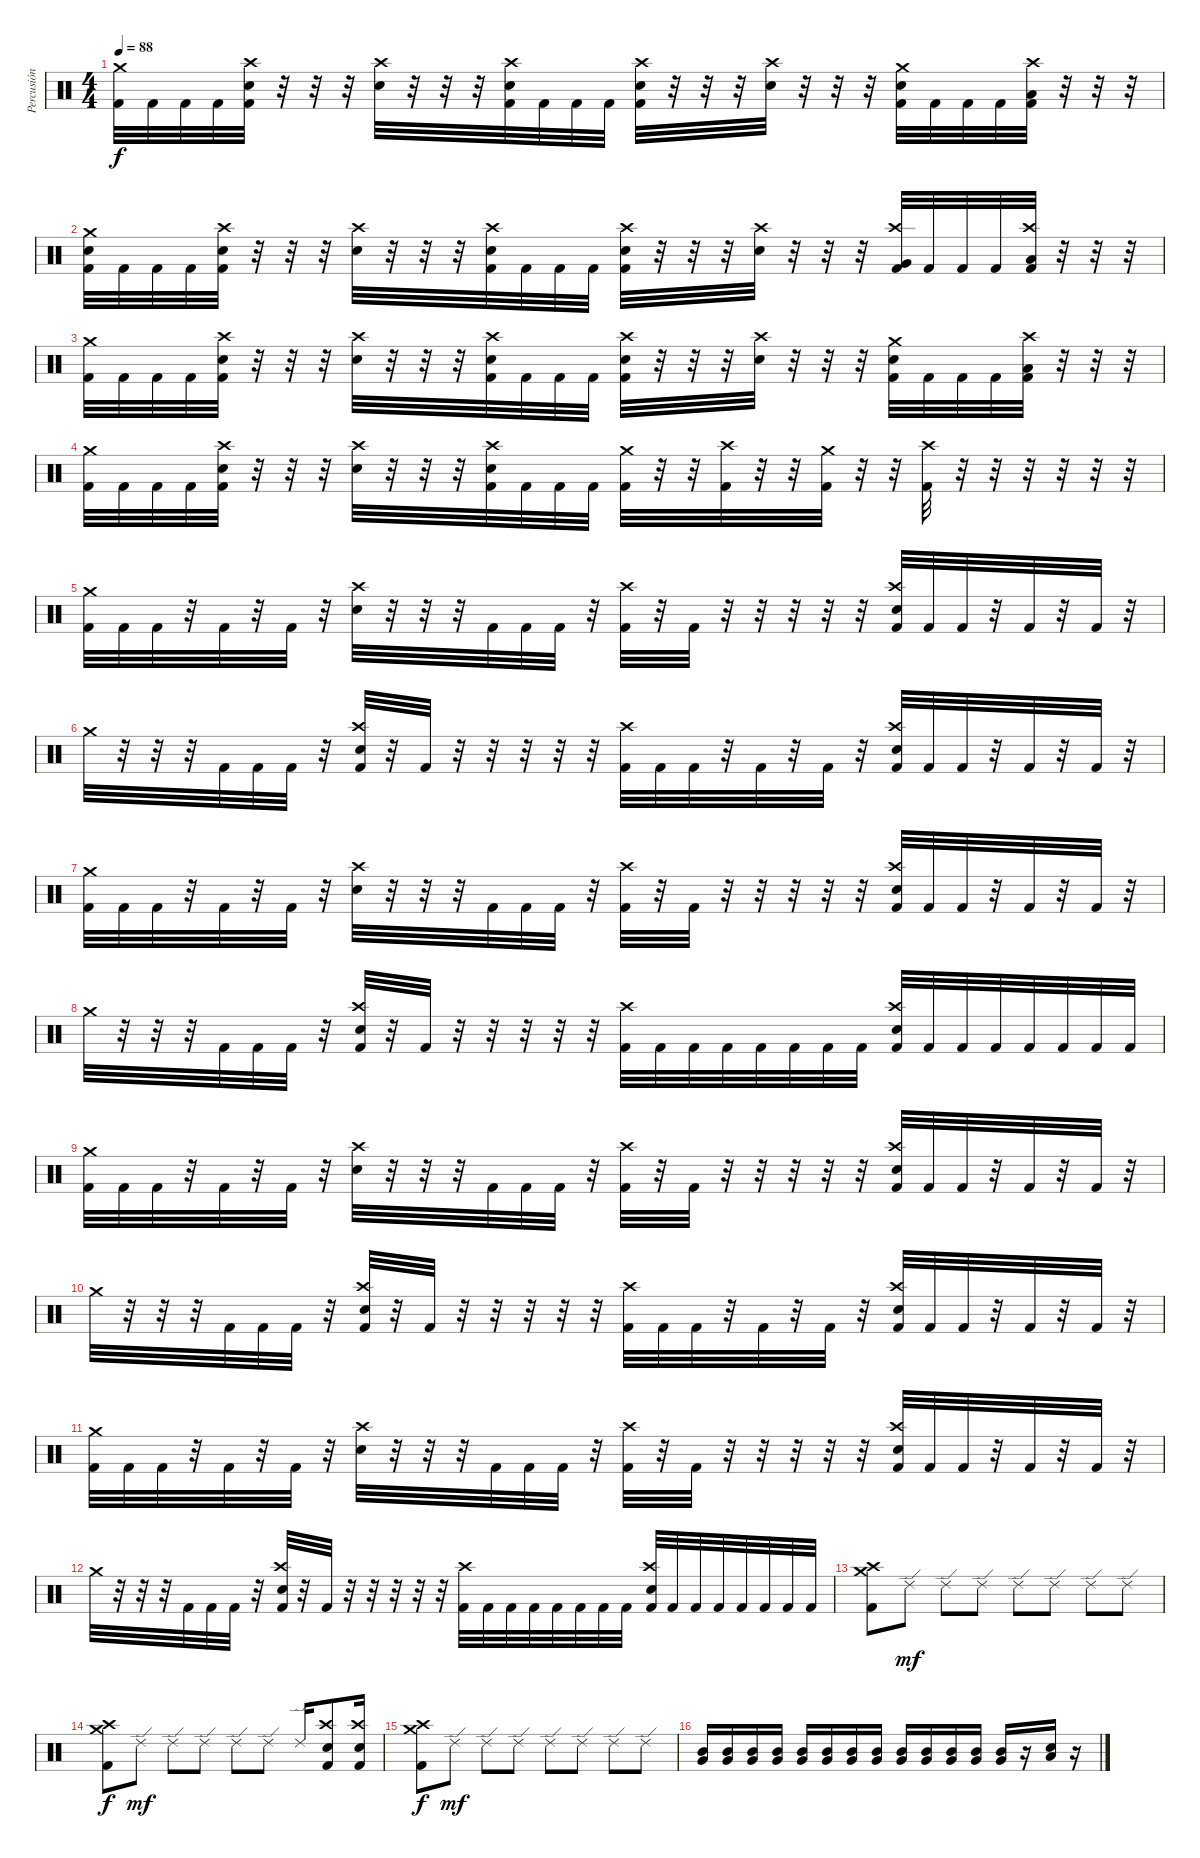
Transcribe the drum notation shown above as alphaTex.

\track ("Percusión" "Percusión") {instrument percussion}
\staff {score}
\articulation defaults
\ts (4 4)
\tempo 88
\clef neutral
\ks c
("Crash medium (hit)" "Kick (hit) 2").32{dy f} "Kick (hit) 2".32 "Kick (hit) 2".32 "Kick (hit) 2".32 ("Crash high (hit)" "Electric Snare (hit)" "Kick (hit) 2").32 r.32 r.32 r.32 ("Crash high (hit)" "Electric Snare (hit)").32 r.32 r.32 r.32 ("Crash high (hit)" "Electric Snare (hit)" "Kick (hit) 2").32 "Kick (hit) 2".32 "Kick (hit) 2".32 "Kick (hit) 2".32 ("Crash high (hit)" "Electric Snare (hit)" "Kick (hit) 2").32 r.32 r.32 r.32 ("Crash high (hit)" "Electric Snare (hit)").32 r.32 r.32 r.32 ("Crash medium (hit)" "Electric Snare (hit)" "Kick (hit) 2").32 "Kick (hit) 2".32 "Kick (hit) 2".32 "Kick (hit) 2".32 ("Crash high (hit)" "Low Tom (hit)" "Kick (hit) 2").32 r.32 r.32 r.32 |
("Crash medium (hit)" "Electric Snare (hit)" "Kick (hit) 2").32 "Kick (hit) 2".32 "Kick (hit) 2".32 "Kick (hit) 2".32 ("Crash high (hit)" "Electric Snare (hit)" "Kick (hit) 2").32 r.32 r.32 r.32 ("Crash high (hit)" "Electric Snare (hit)").32 r.32 r.32 r.32 ("Crash high (hit)" "Electric Snare (hit)" "Kick (hit) 2").32 "Kick (hit) 2".32 "Kick (hit) 2".32 "Kick (hit) 2".32 ("Crash high (hit)" "Electric Snare (hit)" "Kick (hit) 2").32 r.32 r.32 r.32 ("Crash high (hit)" "Electric Snare (hit)").32 r.32 r.32 r.32 ("Crash high (hit)" "Very Low Tom (hit)" "Kick (hit) 2").32 "Kick (hit) 2".32 "Kick (hit) 2".32 "Kick (hit) 2".32 ("Crash high (hit)" "Low Tom (hit)" "Kick (hit) 2").32 r.32 r.32 r.32 |
("Crash medium (hit)" "Kick (hit) 2").32 "Kick (hit) 2".32 "Kick (hit) 2".32 "Kick (hit) 2".32 ("Crash high (hit)" "Electric Snare (hit)" "Kick (hit) 2").32 r.32 r.32 r.32 ("Crash high (hit)" "Electric Snare (hit)").32 r.32 r.32 r.32 ("Crash high (hit)" "Electric Snare (hit)" "Kick (hit) 2").32 "Kick (hit) 2".32 "Kick (hit) 2".32 "Kick (hit) 2".32 ("Crash high (hit)" "Electric Snare (hit)" "Kick (hit) 2").32 r.32 r.32 r.32 ("Crash high (hit)" "Electric Snare (hit)").32 r.32 r.32 r.32 ("Crash medium (hit)" "Electric Snare (hit)" "Kick (hit) 2").32 "Kick (hit) 2".32 "Kick (hit) 2".32 "Kick (hit) 2".32 ("Crash high (hit)" "Low Tom (hit)" "Kick (hit) 2").32 r.32 r.32 r.32 |
("Crash medium (hit)" "Kick (hit) 2").32 "Kick (hit) 2".32 "Kick (hit) 2".32 "Kick (hit) 2".32 ("Crash high (hit)" "Electric Snare (hit)" "Kick (hit) 2").32 r.32 r.32 r.32 ("Crash high (hit)" "Electric Snare (hit)").32 r.32 r.32 r.32 ("Crash high (hit)" "Electric Snare (hit)" "Kick (hit) 2").32 "Kick (hit) 2".32 "Kick (hit) 2".32 "Kick (hit) 2".32 ("Crash medium (hit)" "Kick (hit) 2").32 r.32 r.32 ("Crash high (hit)" "Kick (hit) 2").32 r.32 r.32 ("Crash medium (hit)" "Kick (hit) 2").32 r.32 r.32 ("Crash high (hit)" "Kick (hit) 2").32 r.32 r.32 r.32 r.32 r.32 r.32 |
("Crash medium (hit)" "Kick (hit) 2").32 "Kick (hit) 2".32 "Kick (hit) 2".32 r.32 "Kick (hit) 2".32 r.32 "Kick (hit) 2".32 r.32 ("Crash high (hit)" "Electric Snare (hit)").32 r.32 r.32 r.32 "Kick (hit) 2".32 "Kick (hit) 2".32 "Kick (hit) 2".32 r.32 ("Crash high (hit)" "Kick (hit) 2").32 r.32 "Kick (hit) 2".32 r.32 r.32 r.32 r.32 r.32 ("Crash high (hit)" "Electric Snare (hit)" "Kick (hit) 2").32 "Kick (hit) 2".32 "Kick (hit) 2".32 r.32 "Kick (hit) 2".32 r.32 "Kick (hit) 2".32 r.32 |
"Crash medium (hit)".32 r.32 r.32 r.32 "Kick (hit) 2".32 "Kick (hit) 2".32 "Kick (hit) 2".32 r.32 ("Crash high (hit)" "Electric Snare (hit)" "Kick (hit) 2").32 r.32 "Kick (hit) 2".32 r.32 r.32 r.32 r.32 r.32 ("Crash high (hit)" "Kick (hit) 2").32 "Kick (hit) 2".32 "Kick (hit) 2".32 r.32 "Kick (hit) 2".32 r.32 "Kick (hit) 2".32 r.32 ("Crash high (hit)" "Electric Snare (hit)" "Kick (hit) 2").32 "Kick (hit) 2".32 "Kick (hit) 2".32 r.32 "Kick (hit) 2".32 r.32 "Kick (hit) 2".32 r.32 |
("Crash medium (hit)" "Kick (hit) 2").32 "Kick (hit) 2".32 "Kick (hit) 2".32 r.32 "Kick (hit) 2".32 r.32 "Kick (hit) 2".32 r.32 ("Crash high (hit)" "Electric Snare (hit)").32 r.32 r.32 r.32 "Kick (hit) 2".32 "Kick (hit) 2".32 "Kick (hit) 2".32 r.32 ("Crash high (hit)" "Kick (hit) 2").32 r.32 "Kick (hit) 2".32 r.32 r.32 r.32 r.32 r.32 ("Crash high (hit)" "Electric Snare (hit)" "Kick (hit) 2").32 "Kick (hit) 2".32 "Kick (hit) 2".32 r.32 "Kick (hit) 2".32 r.32 "Kick (hit) 2".32 r.32 |
"Crash medium (hit)".32 r.32 r.32 r.32 "Kick (hit) 2".32 "Kick (hit) 2".32 "Kick (hit) 2".32 r.32 ("Crash high (hit)" "Electric Snare (hit)" "Kick (hit) 2").32 r.32 "Kick (hit) 2".32 r.32 r.32 r.32 r.32 r.32 ("Crash high (hit)" "Kick (hit) 2").32 "Kick (hit) 2".32 "Kick (hit) 2".32 "Kick (hit) 2".32 "Kick (hit) 2".32 "Kick (hit) 2".32 "Kick (hit) 2".32 "Kick (hit) 2".32 ("Crash high (hit)" "Electric Snare (hit)" "Kick (hit) 2").32 "Kick (hit) 2".32 "Kick (hit) 2".32 "Kick (hit) 2".32 "Kick (hit) 2".32 "Kick (hit) 2".32 "Kick (hit) 2".32 "Kick (hit) 2".32 |
("Crash medium (hit)" "Kick (hit) 2").32 "Kick (hit) 2".32 "Kick (hit) 2".32 r.32 "Kick (hit) 2".32 r.32 "Kick (hit) 2".32 r.32 ("Crash high (hit)" "Electric Snare (hit)").32 r.32 r.32 r.32 "Kick (hit) 2".32 "Kick (hit) 2".32 "Kick (hit) 2".32 r.32 ("Crash high (hit)" "Kick (hit) 2").32 r.32 "Kick (hit) 2".32 r.32 r.32 r.32 r.32 r.32 ("Crash high (hit)" "Electric Snare (hit)" "Kick (hit) 2").32 "Kick (hit) 2".32 "Kick (hit) 2".32 r.32 "Kick (hit) 2".32 r.32 "Kick (hit) 2".32 r.32 |
"Crash medium (hit)".32 r.32 r.32 r.32 "Kick (hit) 2".32 "Kick (hit) 2".32 "Kick (hit) 2".32 r.32 ("Crash high (hit)" "Electric Snare (hit)" "Kick (hit) 2").32 r.32 "Kick (hit) 2".32 r.32 r.32 r.32 r.32 r.32 ("Crash high (hit)" "Kick (hit) 2").32 "Kick (hit) 2".32 "Kick (hit) 2".32 r.32 "Kick (hit) 2".32 r.32 "Kick (hit) 2".32 r.32 ("Crash high (hit)" "Electric Snare (hit)" "Kick (hit) 2").32 "Kick (hit) 2".32 "Kick (hit) 2".32 r.32 "Kick (hit) 2".32 r.32 "Kick (hit) 2".32 r.32 |
("Crash medium (hit)" "Kick (hit) 2").32 "Kick (hit) 2".32 "Kick (hit) 2".32 r.32 "Kick (hit) 2".32 r.32 "Kick (hit) 2".32 r.32 ("Crash high (hit)" "Electric Snare (hit)").32 r.32 r.32 r.32 "Kick (hit) 2".32 "Kick (hit) 2".32 "Kick (hit) 2".32 r.32 ("Crash high (hit)" "Kick (hit) 2").32 r.32 "Kick (hit) 2".32 r.32 r.32 r.32 r.32 r.32 ("Crash high (hit)" "Electric Snare (hit)" "Kick (hit) 2").32 "Kick (hit) 2".32 "Kick (hit) 2".32 r.32 "Kick (hit) 2".32 r.32 "Kick (hit) 2".32 r.32 |
"Crash medium (hit)".32 r.32 r.32 r.32 "Kick (hit) 2".32 "Kick (hit) 2".32 "Kick (hit) 2".32 r.32 ("Crash high (hit)" "Electric Snare (hit)" "Kick (hit) 2").32 r.32 "Kick (hit) 2".32 r.32 r.32 r.32 r.32 r.32 ("Crash high (hit)" "Kick (hit) 2").32 "Kick (hit) 2".32 "Kick (hit) 2".32 "Kick (hit) 2".32 "Kick (hit) 2".32 "Kick (hit) 2".32 "Kick (hit) 2".32 "Kick (hit) 2".32 ("Crash high (hit)" "Electric Snare (hit)" "Kick (hit) 2").32 "Kick (hit) 2".32 "Kick (hit) 2".32 "Kick (hit) 2".32 "Kick (hit) 2".32 "Kick (hit) 2".32 "Kick (hit) 2".32 "Kick (hit) 2".32 |
("Crash medium (hit)" "Crash high (hit)" "Kick (hit) 2").8 "Ride (edge) 2".8{dy mf} "Ride (edge) 2".8 "Ride (edge) 2".8 "Ride (edge) 2".8 "Ride (edge) 2".8 "Ride (edge) 2".8 "Ride (edge) 2".8 |
("Crash medium (hit)" "Crash high (hit)" "Kick (hit) 2").8{dy f} "Ride (edge) 2".8{dy mf} "Ride (edge) 2".8 "Ride (edge) 2".8 "Ride (edge) 2".8 "Ride (edge) 2".8 "Ride (edge) 2".16 ("Crash high (hit)" "Electric Snare (hit)" "Kick (hit) 2").8 ("Crash high (hit)" "Electric Snare (hit)" "Kick (hit) 2").16 |
("Crash medium (hit)" "Crash high (hit)" "Kick (hit) 2").8{dy f} "Ride (edge) 2".8{dy mf} "Ride (edge) 2".8 "Ride (edge) 2".8 "Ride (edge) 2".8 "Ride (edge) 2".8 "Ride (edge) 2".8 "Ride (edge) 2".8 |
("Mid Tom (hit)" "Very Low Tom (hit)").16 ("Mid Tom (hit)" "Very Low Tom (hit)").16 ("Mid Tom (hit)" "Very Low Tom (hit)").16 ("Mid Tom (hit)" "Very Low Tom (hit)").16 ("Mid Tom (hit)" "Very Low Tom (hit)").16 ("Mid Tom (hit)" "Very Low Tom (hit)").16 ("Mid Tom (hit)" "Very Low Tom (hit)").16 ("Mid Tom (hit)" "Very Low Tom (hit)").16 ("Mid Tom (hit)" "Very Low Tom (hit)").16 ("Mid Tom (hit)" "Very Low Tom (hit)").16 ("Mid Tom (hit)" "Very Low Tom (hit)").16 ("Mid Tom (hit)" "Very Low Tom (hit)").16 ("Mid Tom (hit)" "Very Low Tom (hit)").16 r.16 ("Low Tom (hit)" "Electric Snare (hit)").16 r.16
